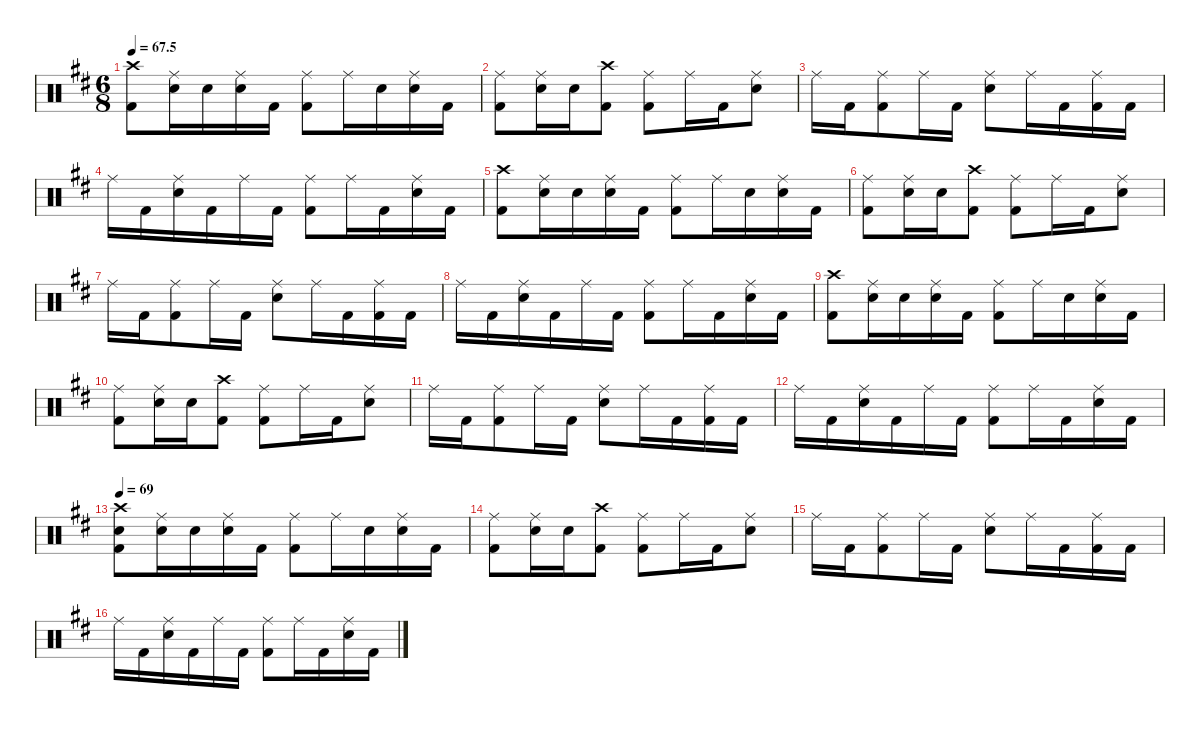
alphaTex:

\defaultSystemsLayout 4
\hideDynamics
\bracketExtendMode groupsimilarinstruments
\singleTrackTrackNamePolicy hidden
\multiTrackTrackNamePolicy hidden
\firstSystemTrackNameMode fullname
\firstSystemTrackNameOrientation horizontal
\otherSystemsTrackNameOrientation horizontal
\track ("Drumkit" "drm.") {defaultSystemsLayout 4 instrument percussion}
\staff {score}
\articulation defaults
\ts (6 8)
\tempo
67.5
\accidentals auto
\clef neutral
\ottava regular
\simile none
\ks bminor
("Kick (hit) 2"{acc forcenatural} "Crash high (hit)"{acc #}).8{dy ff beam Down} ("Snare (hit) 2"{acc forcenatural} "Ride (middle)"{acc #}).16{beam Down} "Snare (hit) 2"{acc forcenatural}.16{beam Down} ("Snare (hit) 2"{acc forcenatural} "Ride (middle)"{acc #}).16{beam Down} "Kick (hit) 2"{acc forcenatural}.16{beam Down} ("Ride (middle)"{acc #} "Kick (hit) 2"{acc forcenatural}).8{beam Down} "Ride (middle)"{acc #}.16{beam Down} "Snare (hit) 2"{acc forcenatural}.16{beam Down} ("Ride (middle)"{acc #} "Snare (hit) 2"{acc forcenatural}).16{beam Down} "Kick (hit) 2"{acc forcenatural}.16{beam Down} |
("Kick (hit) 2"{acc forcenatural} "Ride (middle)"{acc #}).8{beam Down} ("Snare (hit) 2"{acc forcenatural} "Ride (middle)"{acc #}).16{beam Down} "Snare (hit) 2"{acc forcenatural}.16{beam Down} ("Kick (hit) 2"{acc forcenatural} "Crash high (hit)"{acc #}).8{beam Down} ("Ride (middle)"{acc #} "Kick (hit) 2"{acc forcenatural}).8{beam Down} "Ride (middle)"{acc #}.16{beam Down} "Kick (hit) 2"{acc forcenatural}.16{beam Down} ("Ride (middle)"{acc #} "Snare (hit) 2"{acc forcenatural}).8{beam Down} |
"Ride (middle)"{acc #}.16{beam Down} "Kick (hit) 2"{acc forcenatural}.16{beam Down} ("Ride (middle)"{acc #} "Kick (hit) 2"{acc forcenatural}).8{beam Down} "Ride (middle)"{acc #}.16{beam Down} "Kick (hit) 2"{acc forcenatural}.16{beam Down} ("Ride (middle)"{acc #} "Snare (hit) 2"{acc forcenatural}).8{beam Down} "Ride (middle)"{acc #}.16{beam Down} "Kick (hit) 2"{acc forcenatural}.16{beam Down} ("Kick (hit) 2"{acc forcenatural} "Ride (middle)"{acc #}).16{beam Down} "Kick (hit) 2"{acc forcenatural}.16{beam Down} |
"Ride (middle)"{acc #}.16{beam Down} "Kick (hit) 2"{acc forcenatural}.16{beam Down} ("Ride (middle)"{acc #} "Snare (hit) 2"{acc forcenatural}).16{beam Down} "Kick (hit) 2"{acc forcenatural}.16{beam Down} "Ride (middle)"{acc #}.16{beam Down} "Kick (hit) 2"{acc forcenatural}.16{beam Down} ("Ride (middle)"{acc #} "Kick (hit) 2"{acc forcenatural}).8{beam Down} "Ride (middle)"{acc #}.16{beam Down} "Kick (hit) 2"{acc forcenatural}.16{beam Down} ("Ride (middle)"{acc #} "Snare (hit) 2"{acc forcenatural}).16{beam Down} "Kick (hit) 2"{acc forcenatural}.16{beam Down} |
("Kick (hit) 2"{acc forcenatural} "Crash high (hit)"{acc #}).8{beam Down} ("Snare (hit) 2"{acc forcenatural} "Ride (middle)"{acc #}).16{beam Down} "Snare (hit) 2"{acc forcenatural}.16{beam Down} ("Snare (hit) 2"{acc forcenatural} "Ride (middle)"{acc #}).16{beam Down} "Kick (hit) 2"{acc forcenatural}.16{beam Down} ("Ride (middle)"{acc #} "Kick (hit) 2"{acc forcenatural}).8{beam Down} "Ride (middle)"{acc #}.16{beam Down} "Snare (hit) 2"{acc forcenatural}.16{beam Down} ("Ride (middle)"{acc #} "Snare (hit) 2"{acc forcenatural}).16{beam Down} "Kick (hit) 2"{acc forcenatural}.16{beam Down} |
("Kick (hit) 2"{acc forcenatural} "Ride (middle)"{acc #}).8{beam Down} ("Snare (hit) 2"{acc forcenatural} "Ride (middle)"{acc #}).16{beam Down} "Snare (hit) 2"{acc forcenatural}.16{beam Down} ("Kick (hit) 2"{acc forcenatural} "Crash high (hit)"{acc #}).8{beam Down} ("Ride (middle)"{acc #} "Kick (hit) 2"{acc forcenatural}).8{beam Down} "Ride (middle)"{acc #}.16{beam Down} "Kick (hit) 2"{acc forcenatural}.16{beam Down} ("Ride (middle)"{acc #} "Snare (hit) 2"{acc forcenatural}).8{beam Down} |
"Ride (middle)"{acc #}.16{beam Down} "Kick (hit) 2"{acc forcenatural}.16{beam Down} ("Ride (middle)"{acc #} "Kick (hit) 2"{acc forcenatural}).8{beam Down} "Ride (middle)"{acc #}.16{beam Down} "Kick (hit) 2"{acc forcenatural}.16{beam Down} ("Ride (middle)"{acc #} "Snare (hit) 2"{acc forcenatural}).8{beam Down} "Ride (middle)"{acc #}.16{beam Down} "Kick (hit) 2"{acc forcenatural}.16{beam Down} ("Kick (hit) 2"{acc forcenatural} "Ride (middle)"{acc #}).16{beam Down} "Kick (hit) 2"{acc forcenatural}.16{beam Down} |
"Ride (middle)"{acc #}.16{beam Down} "Kick (hit) 2"{acc forcenatural}.16{beam Down} ("Ride (middle)"{acc #} "Snare (hit) 2"{acc forcenatural}).16{beam Down} "Kick (hit) 2"{acc forcenatural}.16{beam Down} "Ride (middle)"{acc #}.16{beam Down} "Kick (hit) 2"{acc forcenatural}.16{beam Down} ("Ride (middle)"{acc #} "Kick (hit) 2"{acc forcenatural}).8{beam Down} "Ride (middle)"{acc #}.16{beam Down} "Kick (hit) 2"{acc forcenatural}.16{beam Down} ("Ride (middle)"{acc #} "Snare (hit) 2"{acc forcenatural}).16{beam Down} "Kick (hit) 2"{acc forcenatural}.16{beam Down} |
("Kick (hit) 2"{acc forcenatural} "Crash high (hit)"{acc #}).8{beam Down} ("Snare (hit) 2"{acc forcenatural} "Ride (middle)"{acc #}).16{beam Down} "Snare (hit) 2"{acc forcenatural}.16{beam Down} ("Snare (hit) 2"{acc forcenatural} "Ride (middle)"{acc #}).16{beam Down} "Kick (hit) 2"{acc forcenatural}.16{beam Down} ("Ride (middle)"{acc #} "Kick (hit) 2"{acc forcenatural}).8{beam Down} "Ride (middle)"{acc #}.16{beam Down} "Snare (hit) 2"{acc forcenatural}.16{beam Down} ("Ride (middle)"{acc #} "Snare (hit) 2"{acc forcenatural}).16{beam Down} "Kick (hit) 2"{acc forcenatural}.16{beam Down} |
("Kick (hit) 2"{acc forcenatural} "Ride (middle)"{acc #}).8{beam Down} ("Snare (hit) 2"{acc forcenatural} "Ride (middle)"{acc #}).16{beam Down} "Snare (hit) 2"{acc forcenatural}.16{beam Down} ("Kick (hit) 2"{acc forcenatural} "Crash high (hit)"{acc #}).8{beam Down} ("Ride (middle)"{acc #} "Kick (hit) 2"{acc forcenatural}).8{beam Down} "Ride (middle)"{acc #}.16{beam Down} "Kick (hit) 2"{acc forcenatural}.16{beam Down} ("Ride (middle)"{acc #} "Snare (hit) 2"{acc forcenatural}).8{beam Down} |
"Ride (middle)"{acc #}.16{beam Down} "Kick (hit) 2"{acc forcenatural}.16{beam Down} ("Ride (middle)"{acc #} "Kick (hit) 2"{acc forcenatural}).8{beam Down} "Ride (middle)"{acc #}.16{beam Down} "Kick (hit) 2"{acc forcenatural}.16{beam Down} ("Ride (middle)"{acc #} "Snare (hit) 2"{acc forcenatural}).8{beam Down} "Ride (middle)"{acc #}.16{beam Down} "Kick (hit) 2"{acc forcenatural}.16{beam Down} ("Kick (hit) 2"{acc forcenatural} "Ride (middle)"{acc #}).16{beam Down} "Kick (hit) 2"{acc forcenatural}.16{beam Down} |
"Ride (middle)"{acc #}.16{beam Down} "Kick (hit) 2"{acc forcenatural}.16{beam Down} ("Ride (middle)"{acc #} "Snare (hit) 2"{acc forcenatural}).16{beam Down} "Kick (hit) 2"{acc forcenatural}.16{beam Down} "Ride (middle)"{acc #}.16{beam Down} "Kick (hit) 2"{acc forcenatural}.16{beam Down} ("Ride (middle)"{acc #} "Kick (hit) 2"{acc forcenatural}).8{beam Down} "Ride (middle)"{acc #}.16{beam Down} "Kick (hit) 2"{acc forcenatural}.16{beam Down} ("Ride (middle)"{acc #} "Snare (hit) 2"{acc forcenatural}).16{beam Down} "Kick (hit) 2"{acc forcenatural}.16{beam Down} |
\tempo 69
("Kick (hit) 2"{acc forcenatural} "Snare (hit) 2"{acc forcenatural} "Crash high (hit)"{acc #}).8{beam Down} ("Snare (hit) 2"{acc forcenatural} "Ride (middle)"{acc #}).16{beam Down} "Snare (hit) 2"{acc forcenatural}.16{beam Down} ("Snare (hit) 2"{acc forcenatural} "Ride (middle)"{acc #}).16{beam Down} "Kick (hit) 2"{acc forcenatural}.16{beam Down} ("Ride (middle)"{acc #} "Kick (hit) 2"{acc forcenatural}).8{beam Down} "Ride (middle)"{acc #}.16{beam Down} "Snare (hit) 2"{acc forcenatural}.16{beam Down} ("Ride (middle)"{acc #} "Snare (hit) 2"{acc forcenatural}).16{beam Down} "Kick (hit) 2"{acc forcenatural}.16{beam Down} |
("Kick (hit) 2"{acc forcenatural} "Ride (middle)"{acc #}).8{beam Down} ("Snare (hit) 2"{acc forcenatural} "Ride (middle)"{acc #}).16{beam Down} "Snare (hit) 2"{acc forcenatural}.16{beam Down} ("Kick (hit) 2"{acc forcenatural} "Crash high (hit)"{acc #}).8{beam Down} ("Ride (middle)"{acc #} "Kick (hit) 2"{acc forcenatural}).8{beam Down} "Ride (middle)"{acc #}.16{beam Down} "Kick (hit) 2"{acc forcenatural}.16{beam Down} ("Ride (middle)"{acc #} "Snare (hit) 2"{acc forcenatural}).8{beam Down} |
"Ride (middle)"{acc #}.16{beam Down} "Kick (hit) 2"{acc forcenatural}.16{beam Down} ("Ride (middle)"{acc #} "Kick (hit) 2"{acc forcenatural}).8{beam Down} "Ride (middle)"{acc #}.16{beam Down} "Kick (hit) 2"{acc forcenatural}.16{beam Down} ("Ride (middle)"{acc #} "Snare (hit) 2"{acc forcenatural}).8{beam Down} "Ride (middle)"{acc #}.16{beam Down} "Kick (hit) 2"{acc forcenatural}.16{beam Down} ("Kick (hit) 2"{acc forcenatural} "Ride (middle)"{acc #}).16{beam Down} "Kick (hit) 2"{acc forcenatural}.16{beam Down} |
"Ride (middle)"{acc #}.16{beam Down} "Kick (hit) 2"{acc forcenatural}.16{beam Down} ("Ride (middle)"{acc #} "Snare (hit) 2"{acc forcenatural}).16{beam Down} "Kick (hit) 2"{acc forcenatural}.16{beam Down} "Ride (middle)"{acc #}.16{beam Down} "Kick (hit) 2"{acc forcenatural}.16{beam Down} ("Ride (middle)"{acc #} "Kick (hit) 2"{acc forcenatural}).8{beam Down} "Ride (middle)"{acc #}.16{beam Down} "Kick (hit) 2"{acc forcenatural}.16{beam Down} ("Ride (middle)"{acc #} "Snare (hit) 2"{acc forcenatural}).16{beam Down} "Kick (hit) 2"{acc forcenatural}.16{beam Down}
